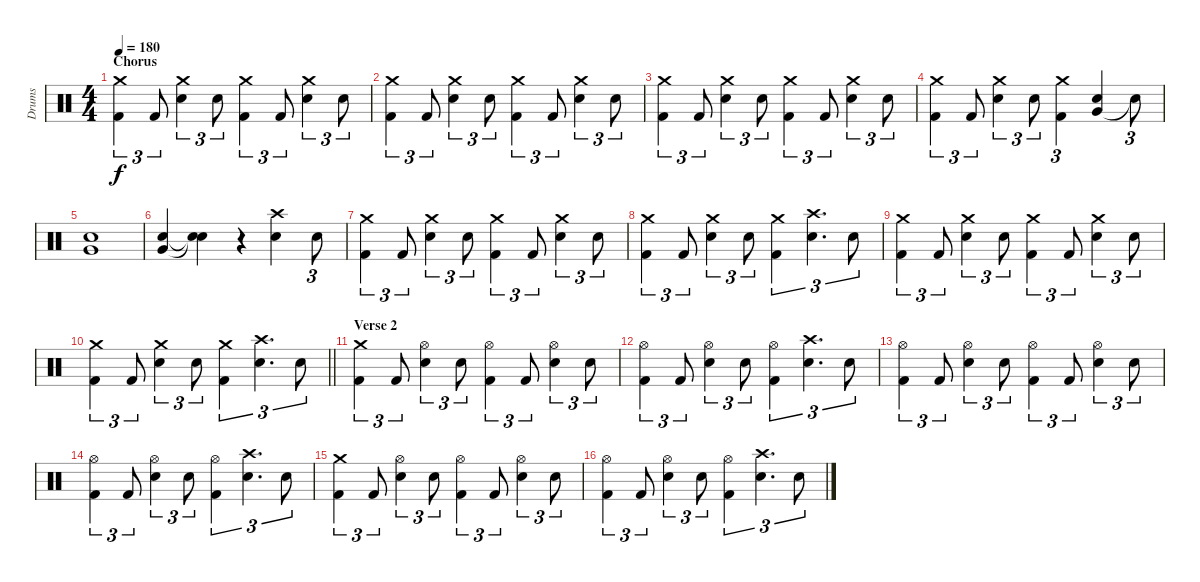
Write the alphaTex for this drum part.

\track ("Drums" "Drums") {instrument percussion}
\staff {score}
\articulation defaults
\ts (4 4)
\section ("" "Chorus")
\tempo 180
\clef neutral
\ks c
("Crash medium (hit)" "Kick (hit) 2").4{tu (3 2) dy f} "Kick (hit) 2".8{tu (3 2)} ("Crash medium (hit)" "Electric Snare (hit)").4{tu (3 2)} "Electric Snare (hit)".8{tu (3 2)} ("Crash medium (hit)" "Kick (hit) 2").4{tu (3 2)} "Kick (hit) 2".8{tu (3 2)} ("Crash medium (hit)" "Electric Snare (hit)").4{tu (3 2)} "Electric Snare (hit)".8{tu (3 2)} |
("Crash medium (hit)" "Kick (hit) 2").4{tu (3 2)} "Kick (hit) 2".8{tu (3 2)} ("Crash medium (hit)" "Electric Snare (hit)").4{tu (3 2)} "Electric Snare (hit)".8{tu (3 2)} ("Crash medium (hit)" "Kick (hit) 2").4{tu (3 2)} "Kick (hit) 2".8{tu (3 2)} ("Crash medium (hit)" "Electric Snare (hit)").4{tu (3 2)} "Electric Snare (hit)".8{tu (3 2)} |
("Crash medium (hit)" "Kick (hit) 2").4{tu (3 2)} "Kick (hit) 2".8{tu (3 2)} ("Crash medium (hit)" "Electric Snare (hit)").4{tu (3 2)} "Electric Snare (hit)".8{tu (3 2)} ("Crash medium (hit)" "Kick (hit) 2").4{tu (3 2)} "Kick (hit) 2".8{tu (3 2)} ("Crash medium (hit)" "Electric Snare (hit)").4{tu (3 2)} "Electric Snare (hit)".8{tu (3 2)} |
("Crash medium (hit)" "Kick (hit) 2").4{tu (3 2)} "Kick (hit) 2".8{tu (3 2)} ("Crash medium (hit)" "Electric Snare (hit)").4{tu (3 2)} "Electric Snare (hit)".8{tu (3 2)} ("Crash medium (hit)" "Kick (hit) 2").4{tu (3 2)} ("Very Low Tom (hit)" "Electric Snare (hit)").4 "Snare (hit)"{t}.8{tu (3 2)} |
("Very Low Tom (hit)" "Electric Snare (hit)").1 |
("Very Low Tom (hit)" "Electric Snare (hit)").4 ("Snare (hit)"{t} "Snare (hit)"{t}).4 r.4{tu (3 2)} ("Crash high (hit)" "Electric Snare (hit)").4 "Electric Snare (hit)".8{tu (3 2)} |
("Crash medium (hit)" "Kick (hit) 2").4{tu (3 2)} "Kick (hit) 2".8{tu (3 2)} ("Crash medium (hit)" "Electric Snare (hit)").4{tu (3 2)} "Electric Snare (hit)".8{tu (3 2)} ("Crash medium (hit)" "Kick (hit) 2").4{tu (3 2)} "Kick (hit) 2".8{tu (3 2)} ("Crash medium (hit)" "Electric Snare (hit)").4{tu (3 2)} "Electric Snare (hit)".8{tu (3 2)} |
("Crash medium (hit)" "Kick (hit) 2").4{tu (3 2)} "Kick (hit) 2".8{tu (3 2)} ("Crash medium (hit)" "Electric Snare (hit)").4{tu (3 2)} "Electric Snare (hit)".8{tu (3 2)} ("Crash medium (hit)" "Kick (hit) 2").4{tu (3 2)} ("Crash high (hit)" "Electric Snare (hit)").4{d tu (3 2)} "Electric Snare (hit)".8{tu (3 2)} |
("Crash medium (hit)" "Kick (hit) 2").4{tu (3 2)} "Kick (hit) 2".8{tu (3 2)} ("Crash medium (hit)" "Electric Snare (hit)").4{tu (3 2)} "Electric Snare (hit)".8{tu (3 2)} ("Crash medium (hit)" "Kick (hit) 2").4{tu (3 2)} "Kick (hit) 2".8{tu (3 2)} ("Crash medium (hit)" "Electric Snare (hit)").4{tu (3 2)} "Electric Snare (hit)".8{tu (3 2)} |
\barLineRight lightlight
("Crash medium (hit)" "Kick (hit) 2").4{tu (3 2)} "Kick (hit) 2".8{tu (3 2)} ("Crash medium (hit)" "Electric Snare (hit)").4{tu (3 2)} "Electric Snare (hit)".8{tu (3 2)} ("Crash medium (hit)" "Kick (hit) 2").4{tu (3 2)} ("Crash high (hit)" "Electric Snare (hit)").4{d tu (3 2)} "Electric Snare (hit)".8{tu (3 2)} |
\section ("" "Verse 2")
("Crash medium (hit)" "Kick (hit) 2").4{tu (3 2)} "Kick (hit) 2".8{tu (3 2)} ("Hi-Hat (open)" "Electric Snare (hit)").4{tu (3 2)} "Electric Snare (hit)".8{tu (3 2)} ("Hi-Hat (open)" "Kick (hit) 2").4{tu (3 2)} "Kick (hit) 2".8{tu (3 2)} ("Hi-Hat (open)" "Electric Snare (hit)").4{tu (3 2)} "Electric Snare (hit)".8{tu (3 2)} |
("Hi-Hat (open)" "Kick (hit) 2").4{tu (3 2)} "Kick (hit) 2".8{tu (3 2)} ("Hi-Hat (open)" "Electric Snare (hit)").4{tu (3 2)} "Electric Snare (hit)".8{tu (3 2)} ("Hi-Hat (open)" "Kick (hit) 2").4{tu (3 2)} ("Crash high (hit)" "Electric Snare (hit)").4{d tu (3 2)} "Electric Snare (hit)".8{tu (3 2)} |
("Hi-Hat (open)" "Kick (hit) 2").4{tu (3 2)} "Kick (hit) 2".8{tu (3 2)} ("Hi-Hat (open)" "Electric Snare (hit)").4{tu (3 2)} "Electric Snare (hit)".8{tu (3 2)} ("Hi-Hat (open)" "Kick (hit) 2").4{tu (3 2)} "Kick (hit) 2".8{tu (3 2)} ("Hi-Hat (open)" "Electric Snare (hit)").4{tu (3 2)} "Electric Snare (hit)".8{tu (3 2)} |
("Hi-Hat (open)" "Kick (hit) 2").4{tu (3 2)} "Kick (hit) 2".8{tu (3 2)} ("Hi-Hat (open)" "Electric Snare (hit)").4{tu (3 2)} "Electric Snare (hit)".8{tu (3 2)} ("Hi-Hat (open)" "Kick (hit) 2").4{tu (3 2)} ("Crash high (hit)" "Electric Snare (hit)").4{d tu (3 2)} "Electric Snare (hit)".8{tu (3 2)} |
("Crash medium (hit)" "Kick (hit) 2").4{tu (3 2)} "Kick (hit) 2".8{tu (3 2)} ("Hi-Hat (open)" "Electric Snare (hit)").4{tu (3 2)} "Electric Snare (hit)".8{tu (3 2)} ("Hi-Hat (open)" "Kick (hit) 2").4{tu (3 2)} "Kick (hit) 2".8{tu (3 2)} ("Hi-Hat (open)" "Electric Snare (hit)").4{tu (3 2)} "Electric Snare (hit)".8{tu (3 2)} |
("Hi-Hat (open)" "Kick (hit) 2").4{tu (3 2)} "Kick (hit) 2".8{tu (3 2)} ("Hi-Hat (open)" "Electric Snare (hit)").4{tu (3 2)} "Electric Snare (hit)".8{tu (3 2)} ("Hi-Hat (open)" "Kick (hit) 2").4{tu (3 2)} ("Crash high (hit)" "Electric Snare (hit)").4{d tu (3 2)} "Electric Snare (hit)".8{tu (3 2)}
